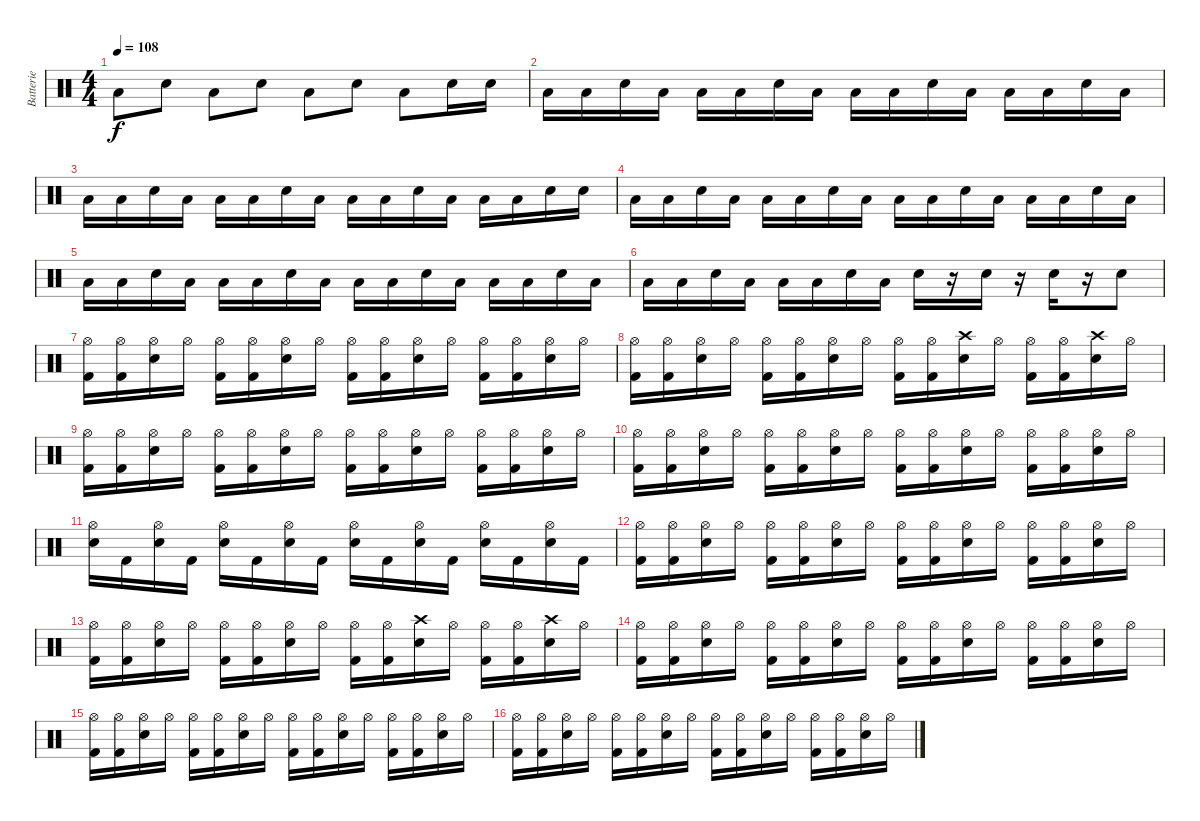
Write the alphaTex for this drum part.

\track ("Batterie" "Batterie") {instrument percussion}
\staff {score}
\articulation defaults
\ts (4 4)
\tempo 108
\clef neutral
\ks c "Low Floor Tom (hit)".8{dy f} "Electric Snare (hit)".8 "Low Floor Tom (hit)".8 "Electric Snare (hit)".8 "Low Floor Tom (hit)".8 "Electric Snare (hit)".8 "Low Floor Tom (hit)".8 "Electric Snare (hit)".16 "Electric Snare (hit)".16
|
"Low Floor Tom (hit)".16 "Low Floor Tom (hit)".16 "Electric Snare (hit)".16 "Low Floor Tom (hit)".16 "Low Floor Tom (hit)".16 "Low Floor Tom (hit)".16 "Electric Snare (hit)".16 "Low Floor Tom (hit)".16 "Low Floor Tom (hit)".16 "Low Floor Tom (hit)".16 "Electric Snare (hit)".16 "Low Floor Tom (hit)".16 "Low Floor Tom (hit)".16 "Low Floor Tom (hit)".16 "Electric Snare (hit)".16 "Low Floor Tom (hit)".16 |
"Low Floor Tom (hit)".16 "Low Floor Tom (hit)".16 "Electric Snare (hit)".16 "Low Floor Tom (hit)".16 "Low Floor Tom (hit)".16 "Low Floor Tom (hit)".16 "Electric Snare (hit)".16 "Low Floor Tom (hit)".16 "Low Floor Tom (hit)".16 "Low Floor Tom (hit)".16 "Electric Snare (hit)".16 "Low Floor Tom (hit)".16 "Low Floor Tom (hit)".16 "Low Floor Tom (hit)".16 "Electric Snare (hit)".16 "Electric Snare (hit)".16 |
"Low Floor Tom (hit)".16 "Low Floor Tom (hit)".16 "Electric Snare (hit)".16 "Low Floor Tom (hit)".16 "Low Floor Tom (hit)".16 "Low Floor Tom (hit)".16 "Electric Snare (hit)".16 "Low Floor Tom (hit)".16 "Low Floor Tom (hit)".16 "Low Floor Tom (hit)".16 "Electric Snare (hit)".16 "Low Floor Tom (hit)".16 "Low Floor Tom (hit)".16 "Low Floor Tom (hit)".16 "Electric Snare (hit)".16 "Low Floor Tom (hit)".16 |
"Low Floor Tom (hit)".16 "Low Floor Tom (hit)".16 "Electric Snare (hit)".16 "Low Floor Tom (hit)".16 "Low Floor Tom (hit)".16 "Low Floor Tom (hit)".16 "Electric Snare (hit)".16 "Low Floor Tom (hit)".16 "Low Floor Tom (hit)".16 "Low Floor Tom (hit)".16 "Electric Snare (hit)".16 "Low Floor Tom (hit)".16 "Low Floor Tom (hit)".16 "Low Floor Tom (hit)".16 "Electric Snare (hit)".16 "Low Floor Tom (hit)".16 |
"Low Floor Tom (hit)".16 "Low Floor Tom (hit)".16 "Electric Snare (hit)".16 "Low Floor Tom (hit)".16 "Low Floor Tom (hit)".16 "Low Floor Tom (hit)".16 "Electric Snare (hit)".16 "Low Floor Tom (hit)".16 "Electric Snare (hit)".16 r.16 "Electric Snare (hit)".16 r.16 "Electric Snare (hit)".16 r.16 "Electric Snare (hit)".8 |
("Kick (hit) 2" "Hi-Hat (open)").16 ("Kick (hit) 2" "Hi-Hat (open)").16 ("Electric Snare (hit)" "Hi-Hat (open)").16 "Hi-Hat (open)".16 ("Kick (hit) 2" "Hi-Hat (open)").16 ("Kick (hit) 2" "Hi-Hat (open)").16 ("Electric Snare (hit)" "Hi-Hat (open)").16 "Hi-Hat (open)".16 ("Kick (hit) 2" "Hi-Hat (open)").16 ("Kick (hit) 2" "Hi-Hat (open)").16 ("Electric Snare (hit)" "Hi-Hat (open)").16 "Hi-Hat (open)".16 ("Kick (hit) 2" "Hi-Hat (open)").16 ("Kick (hit) 2" "Hi-Hat (open)").16 ("Electric Snare (hit)" "Hi-Hat (open)").16 "Hi-Hat (open)".16 |
("Kick (hit) 2" "Hi-Hat (open)").16 ("Kick (hit) 2" "Hi-Hat (open)").16 ("Electric Snare (hit)" "Hi-Hat (open)").16 "Hi-Hat (open)".16 ("Kick (hit) 2" "Hi-Hat (open)").16 ("Kick (hit) 2" "Hi-Hat (open)").16 ("Electric Snare (hit)" "Hi-Hat (open)").16 "Hi-Hat (open)".16 ("Kick (hit) 2" "Hi-Hat (open)").16 ("Kick (hit) 2" "Hi-Hat (open)").16 ("Electric Snare (hit)" "Crash high (hit)").16 "Hi-Hat (open)".16 ("Kick (hit) 2" "Hi-Hat (open)").16 ("Kick (hit) 2" "Hi-Hat (open)").16 ("Electric Snare (hit)" "Crash high (hit)").16 "Hi-Hat (open)".16 |
("Kick (hit) 2" "Hi-Hat (open)").16 ("Kick (hit) 2" "Hi-Hat (open)").16 ("Electric Snare (hit)" "Hi-Hat (open)").16 "Hi-Hat (open)".16 ("Kick (hit) 2" "Hi-Hat (open)").16 ("Kick (hit) 2" "Hi-Hat (open)").16 ("Electric Snare (hit)" "Hi-Hat (open)").16 "Hi-Hat (open)".16 ("Kick (hit) 2" "Hi-Hat (open)").16 ("Kick (hit) 2" "Hi-Hat (open)").16 ("Electric Snare (hit)" "Hi-Hat (open)").16 "Hi-Hat (open)".16 ("Kick (hit) 2" "Hi-Hat (open)").16 ("Kick (hit) 2" "Hi-Hat (open)").16 ("Electric Snare (hit)" "Hi-Hat (open)").16 "Hi-Hat (open)".16 |
("Kick (hit) 2" "Hi-Hat (open)").16 ("Kick (hit) 2" "Hi-Hat (open)").16 ("Electric Snare (hit)" "Hi-Hat (open)").16 "Hi-Hat (open)".16 ("Kick (hit) 2" "Hi-Hat (open)").16 ("Kick (hit) 2" "Hi-Hat (open)").16 ("Electric Snare (hit)" "Hi-Hat (open)").16 "Hi-Hat (open)".16 ("Kick (hit) 2" "Hi-Hat (open)").16 ("Kick (hit) 2" "Hi-Hat (open)").16 ("Electric Snare (hit)" "Hi-Hat (open)").16 "Hi-Hat (open)".16 ("Kick (hit) 2" "Hi-Hat (open)").16 ("Kick (hit) 2" "Hi-Hat (open)").16 ("Electric Snare (hit)" "Hi-Hat (open)").16 "Hi-Hat (open)".16 |
("Electric Snare (hit)" "Hi-Hat (open)").16 "Kick (hit) 2".16 ("Electric Snare (hit)" "Hi-Hat (open)").16 "Kick (hit) 2".16 ("Electric Snare (hit)" "Hi-Hat (open)").16 "Kick (hit) 2".16 ("Electric Snare (hit)" "Hi-Hat (open)").16 "Kick (hit) 2".16 ("Electric Snare (hit)" "Hi-Hat (open)").16 "Kick (hit) 2".16 ("Electric Snare (hit)" "Hi-Hat (open)").16 "Kick (hit) 2".16 ("Electric Snare (hit)" "Hi-Hat (open)").16 "Kick (hit) 2".16 ("Electric Snare (hit)" "Hi-Hat (open)").16 "Kick (hit) 2".16 |
("Kick (hit) 2" "Hi-Hat (open)").16 ("Kick (hit) 2" "Hi-Hat (open)").16 ("Electric Snare (hit)" "Hi-Hat (open)").16 "Hi-Hat (open)".16 ("Kick (hit) 2" "Hi-Hat (open)").16 ("Kick (hit) 2" "Hi-Hat (open)").16 ("Electric Snare (hit)" "Hi-Hat (open)").16 "Hi-Hat (open)".16 ("Kick (hit) 2" "Hi-Hat (open)").16 ("Kick (hit) 2" "Hi-Hat (open)").16 ("Electric Snare (hit)" "Hi-Hat (open)").16 "Hi-Hat (open)".16 ("Kick (hit) 2" "Hi-Hat (open)").16 ("Kick (hit) 2" "Hi-Hat (open)").16 ("Electric Snare (hit)" "Hi-Hat (open)").16 "Hi-Hat (open)".16 |
("Kick (hit) 2" "Hi-Hat (open)").16 ("Kick (hit) 2" "Hi-Hat (open)").16 ("Electric Snare (hit)" "Hi-Hat (open)").16 "Hi-Hat (open)".16 ("Kick (hit) 2" "Hi-Hat (open)").16 ("Kick (hit) 2" "Hi-Hat (open)").16 ("Electric Snare (hit)" "Hi-Hat (open)").16 "Hi-Hat (open)".16 ("Kick (hit) 2" "Hi-Hat (open)").16 ("Kick (hit) 2" "Hi-Hat (open)").16 ("Electric Snare (hit)" "Crash high (hit)").16 "Hi-Hat (open)".16 ("Kick (hit) 2" "Hi-Hat (open)").16 ("Kick (hit) 2" "Hi-Hat (open)").16 ("Electric Snare (hit)" "Crash high (hit)").16 "Hi-Hat (open)".16 |
("Kick (hit) 2" "Hi-Hat (open)").16 ("Kick (hit) 2" "Hi-Hat (open)").16 ("Electric Snare (hit)" "Hi-Hat (open)").16 "Hi-Hat (open)".16 ("Kick (hit) 2" "Hi-Hat (open)").16 ("Kick (hit) 2" "Hi-Hat (open)").16 ("Electric Snare (hit)" "Hi-Hat (open)").16 "Hi-Hat (open)".16 ("Kick (hit) 2" "Hi-Hat (open)").16 ("Kick (hit) 2" "Hi-Hat (open)").16 ("Electric Snare (hit)" "Hi-Hat (open)").16 "Hi-Hat (open)".16 ("Kick (hit) 2" "Hi-Hat (open)").16 ("Kick (hit) 2" "Hi-Hat (open)").16 ("Electric Snare (hit)" "Hi-Hat (open)").16 "Hi-Hat (open)".16 |
("Kick (hit) 2" "Hi-Hat (open)").16 ("Kick (hit) 2" "Hi-Hat (open)").16 ("Electric Snare (hit)" "Hi-Hat (open)").16 "Hi-Hat (open)".16 ("Kick (hit) 2" "Hi-Hat (open)").16 ("Kick (hit) 2" "Hi-Hat (open)").16 ("Electric Snare (hit)" "Hi-Hat (open)").16 "Hi-Hat (open)".16 ("Kick (hit) 2" "Hi-Hat (open)").16 ("Kick (hit) 2" "Hi-Hat (open)").16 ("Electric Snare (hit)" "Hi-Hat (open)").16 "Hi-Hat (open)".16 ("Kick (hit) 2" "Hi-Hat (open)").16 ("Kick (hit) 2" "Hi-Hat (open)").16 ("Electric Snare (hit)" "Hi-Hat (open)").16 "Hi-Hat (open)".16 |
("Kick (hit) 2" "Hi-Hat (open)").16 ("Kick (hit) 2" "Hi-Hat (open)").16 ("Electric Snare (hit)" "Hi-Hat (open)").16 "Hi-Hat (open)".16 ("Kick (hit) 2" "Hi-Hat (open)").16 ("Kick (hit) 2" "Hi-Hat (open)").16 ("Electric Snare (hit)" "Hi-Hat (open)").16 "Hi-Hat (open)".16 ("Kick (hit) 2" "Hi-Hat (open)").16 ("Kick (hit) 2" "Hi-Hat (open)").16 ("Electric Snare (hit)" "Hi-Hat (open)").16 "Hi-Hat (open)".16 ("Kick (hit) 2" "Hi-Hat (open)").16 ("Kick (hit) 2" "Hi-Hat (open)").16 ("Electric Snare (hit)" "Hi-Hat (open)").16 "Hi-Hat (open)".16
